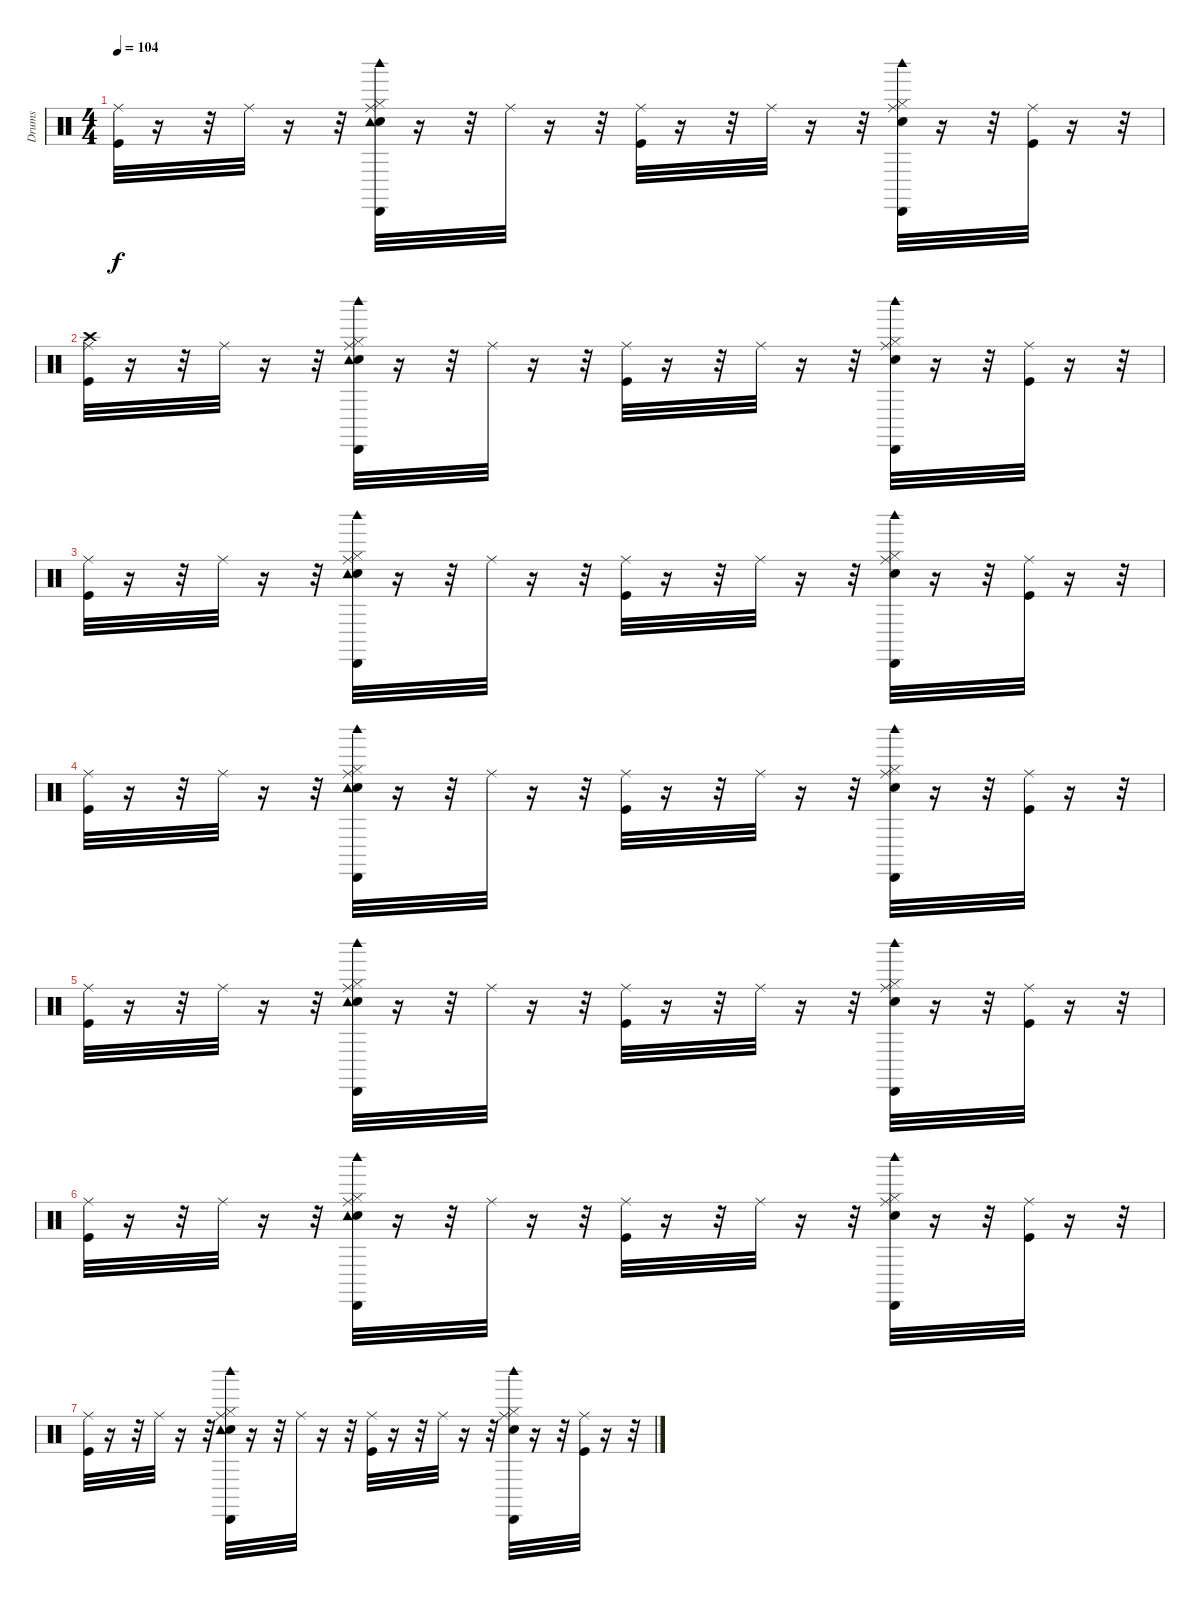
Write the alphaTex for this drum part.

\track ("Drums" "Drums") {instrument percussion}
\staff {score}
\articulation defaults
\ts (4 4)
\tempo 104
\clef neutral
\ks c
("Kick (hit)" "Ride (middle)").32{dy f} r.16 r.32 "Ride (middle)".32 r.16 r.32 ("Snare (hit) 2" "Hi-Hat (closed)" "Ride (middle)" "Tambourine (hit)" "Cabasa (hit)" "Woodblock high (hit)").32 r.16 r.32 "Ride (middle)".32 r.16 r.32 ("Kick (hit)" "Ride (middle)").32 r.16 r.32 "Ride (middle)".32 r.16 r.32 ("Snare (hit) 2" "Hi-Hat (closed)" "Ride (middle)" "Cabasa (hit)" "Woodblock high (hit)").32 r.16 r.32 ("Kick (hit)" "Ride (middle)").32 r.16 r.32 |
("Kick (hit)" "Crash high (hit)" "Ride (middle)").32{volume 7} r.16 r.32 "Ride (middle)".32 r.16 r.32 ("Snare (hit) 2" "Hi-Hat (closed)" "Ride (middle)" "Tambourine (hit)" "Cabasa (hit)" "Woodblock high (hit)").32 r.16 r.32 "Ride (middle)".32 r.16 r.32 ("Kick (hit)" "Ride (middle)").32 r.16 r.32 "Ride (middle)".32 r.16 r.32 ("Snare (hit) 2" "Hi-Hat (closed)" "Ride (middle)" "Cabasa (hit)" "Woodblock high (hit)").32 r.16 r.32 ("Kick (hit)" "Ride (middle)").32 r.16 r.32 |
("Kick (hit)" "Ride (middle)").32 r.16 r.32 "Ride (middle)".32 r.16 r.32 ("Snare (hit) 2" "Hi-Hat (closed)" "Ride (middle)" "Tambourine (hit)" "Cabasa (hit)" "Woodblock high (hit)").32 r.16 r.32 "Ride (middle)".32 r.16 r.32 ("Kick (hit)" "Ride (middle)").32 r.16 r.32 "Ride (middle)".32 r.16 r.32 ("Snare (hit) 2" "Hi-Hat (closed)" "Ride (middle)" "Cabasa (hit)" "Woodblock high (hit)").32 r.16 r.32 ("Kick (hit)" "Ride (middle)").32 r.16 r.32 |
("Kick (hit)" "Ride (middle)").32{volume 4} r.16 r.32 "Ride (middle)".32 r.16 r.32 ("Snare (hit) 2" "Hi-Hat (closed)" "Ride (middle)" "Tambourine (hit)" "Cabasa (hit)" "Woodblock high (hit)").32 r.16 r.32 "Ride (middle)".32 r.16 r.32 ("Kick (hit)" "Ride (middle)").32 r.16 r.32 "Ride (middle)".32 r.16 r.32 ("Snare (hit) 2" "Hi-Hat (closed)" "Ride (middle)" "Cabasa (hit)" "Woodblock high (hit)").32 r.16 r.32 ("Kick (hit)" "Ride (middle)").32 r.16 r.32 |
("Kick (hit)" "Ride (middle)").32 r.16 r.32 "Ride (middle)".32 r.16 r.32 ("Snare (hit) 2" "Hi-Hat (closed)" "Ride (middle)" "Tambourine (hit)" "Cabasa (hit)" "Woodblock high (hit)").32 r.16 r.32 "Ride (middle)".32 r.16 r.32 ("Kick (hit)" "Ride (middle)").32 r.16 r.32 "Ride (middle)".32 r.16 r.32 ("Snare (hit) 2" "Hi-Hat (closed)" "Ride (middle)" "Cabasa (hit)" "Woodblock high (hit)").32 r.16 r.32 ("Kick (hit)" "Ride (middle)").32 r.16 r.32 |
("Kick (hit)" "Ride (middle)").32{volume 0} r.16 r.32 "Ride (middle)".32 r.16 r.32 ("Snare (hit) 2" "Hi-Hat (closed)" "Ride (middle)" "Tambourine (hit)" "Cabasa (hit)" "Woodblock high (hit)").32 r.16 r.32 "Ride (middle)".32 r.16 r.32 ("Kick (hit)" "Ride (middle)").32 r.16 r.32 "Ride (middle)".32 r.16 r.32 ("Snare (hit) 2" "Hi-Hat (closed)" "Ride (middle)" "Cabasa (hit)" "Woodblock high (hit)").32 r.16 r.32 ("Kick (hit)" "Ride (middle)").32 r.16 r.32 |
("Kick (hit)" "Ride (middle)").32 r.16 r.32 "Ride (middle)".32 r.16 r.32 ("Snare (hit) 2" "Hi-Hat (closed)" "Ride (middle)" "Tambourine (hit)" "Cabasa (hit)" "Woodblock high (hit)").32 r.16 r.32 "Ride (middle)".32 r.16 r.32 ("Kick (hit)" "Ride (middle)").32 r.16 r.32 "Ride (middle)".32 r.16 r.32 ("Snare (hit) 2" "Hi-Hat (closed)" "Ride (middle)" "Cabasa (hit)" "Woodblock high (hit)").32 r.16 r.32 ("Kick (hit)" "Ride (middle)").32 r.16 r.32
